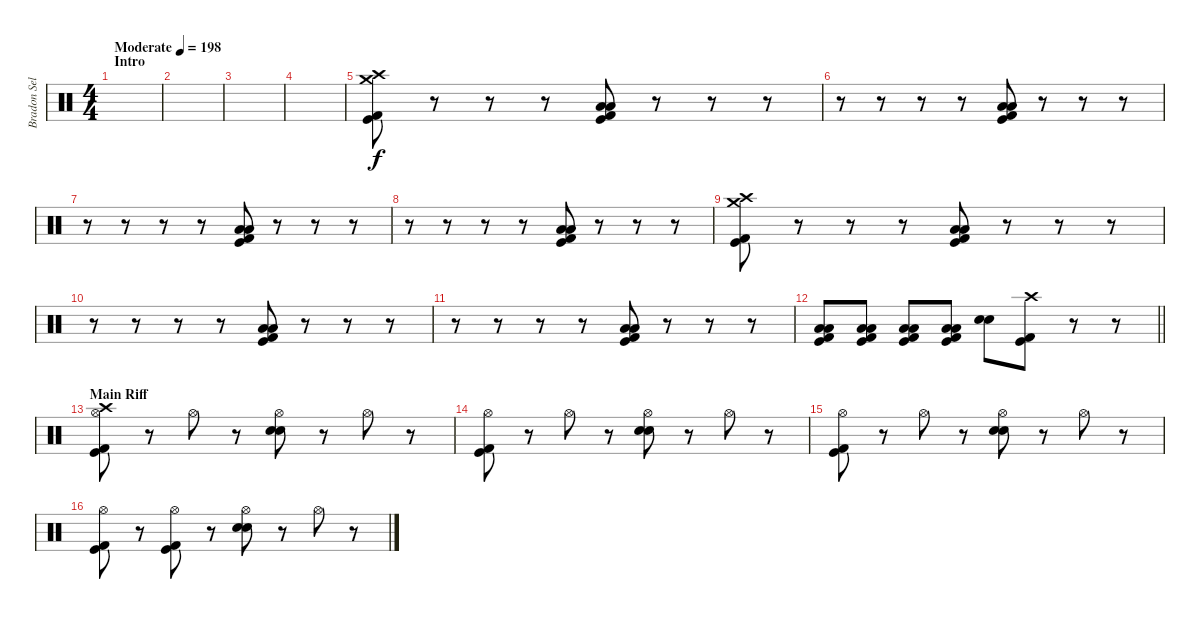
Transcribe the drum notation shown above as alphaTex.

\track ("Bradon Sellar" "Bradon Sel") {instrument percussion}
\staff {score}
\articulation defaults
\ts (4 4)
\section ("" "Intro")
\tempo (198 "Moderate")
\clef neutral
\ks c
|
|
|
|
("Crash high (hit)" "Crash medium (hit)" "Kick (hit) 2" "Kick (hit)").8 r.8 r.8 r.8 ("Low Floor Tom (hit)" "Low Floor Tom (hit)" "Kick (hit) 2" "Kick (hit)").8 r.8 r.8 r.8 |
r.8 r.8 r.8 r.8 ("Low Floor Tom (hit)" "Low Floor Tom (hit)" "Kick (hit) 2" "Kick (hit)").8 r.8 r.8 r.8 |
r.8 r.8 r.8 r.8 ("Low Floor Tom (hit)" "Low Floor Tom (hit)" "Kick (hit) 2" "Kick (hit)").8 r.8 r.8 r.8 |
r.8 r.8 r.8 r.8 ("Low Floor Tom (hit)" "Low Floor Tom (hit)" "Kick (hit) 2" "Kick (hit)").8 r.8 r.8 r.8 |
("Crash high (hit)" "Crash medium (hit)" "Kick (hit) 2" "Kick (hit)").8 r.8 r.8 r.8 ("Low Floor Tom (hit)" "Low Floor Tom (hit)" "Kick (hit) 2" "Kick (hit)").8 r.8 r.8 r.8 |
r.8 r.8 r.8 r.8 ("Low Floor Tom (hit)" "Low Floor Tom (hit)" "Kick (hit) 2" "Kick (hit)").8 r.8 r.8 r.8 |
r.8 r.8 r.8 r.8 ("Low Floor Tom (hit)" "Low Floor Tom (hit)" "Kick (hit) 2" "Kick (hit)").8 r.8 r.8 r.8 |
\barLineRight lightlight
("Low Floor Tom (hit)" "Low Floor Tom (hit)" "Kick (hit) 2" "Kick (hit)").8 ("Low Floor Tom (hit)" "Low Floor Tom (hit)" "Kick (hit) 2" "Kick (hit)").8 ("Low Floor Tom (hit)" "Low Floor Tom (hit)" "Kick (hit) 2" "Kick (hit)").8 ("Low Floor Tom (hit)" "Low Floor Tom (hit)" "Kick (hit) 2" "Kick (hit)").8 ("Snare (hit) 2" "Electric Snare (hit)").8 ("Crash high (hit)" "Kick (hit) 2" "Kick (hit)").8 r.8 r.8 |
\section ("" "Main Riff")
("Crash high (hit)" "Hi-Hat (open)" "Kick (hit) 2" "Kick (hit)").8 r.8 "Hi-Hat (open)".8 r.8 ("Hi-Hat (open)" "Electric Snare (hit)" "Snare (hit) 2").8 r.8 "Hi-Hat (open)".8 r.8 |
("Hi-Hat (open)" "Kick (hit) 2" "Kick (hit)").8 r.8 "Hi-Hat (open)".8 r.8 ("Hi-Hat (open)" "Electric Snare (hit)" "Snare (hit) 2").8 r.8 "Hi-Hat (open)".8 r.8 |
("Hi-Hat (open)" "Kick (hit) 2" "Kick (hit)").8 r.8 "Hi-Hat (open)".8 r.8 ("Hi-Hat (open)" "Electric Snare (hit)" "Snare (hit) 2").8 r.8 "Hi-Hat (open)".8 r.8 |
("Hi-Hat (open)" "Kick (hit) 2" "Kick (hit)").8 r.8 ("Hi-Hat (open)" "Kick (hit) 2" "Kick (hit)").8 r.8 ("Hi-Hat (open)" "Electric Snare (hit)" "Snare (hit) 2").8 r.8 "Hi-Hat (open)".8 r.8
